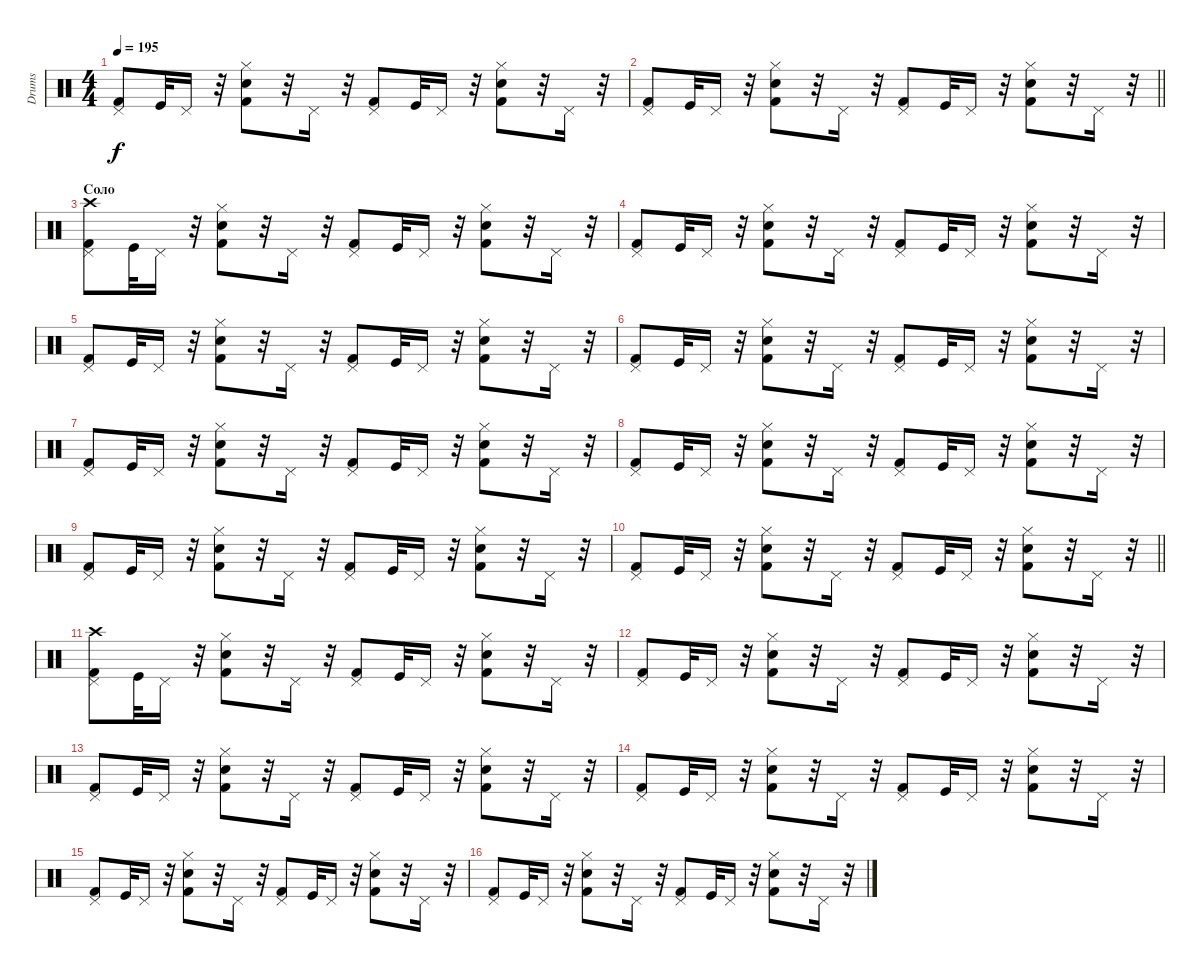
\track ("Drums" "Drums") {instrument percussion}
\staff {score}
\articulation defaults
\ts (4 4)
\tempo 195
\clef neutral
\ks c
("Kick (hit) 2" "Pedal Hi-Hat (hit)").8{dy f} "Kick (hit)".32 "Pedal Hi-Hat (hit)".16 r.32 ("Snare (hit) 2" "Kick (hit) 2" "Hi-Hat (closed)").8 r.32 "Pedal Hi-Hat (hit)".16 r.32 ("Kick (hit) 2" "Pedal Hi-Hat (hit)").8 "Kick (hit)".32 "Pedal Hi-Hat (hit)".16 r.32 ("Snare (hit) 2" "Kick (hit) 2" "Hi-Hat (closed)").8 r.32 "Pedal Hi-Hat (hit)".16 r.32 |
\barLineRight lightlight
("Kick (hit) 2" "Pedal Hi-Hat (hit)").8 "Kick (hit)".32 "Pedal Hi-Hat (hit)".16 r.32 ("Snare (hit) 2" "Kick (hit) 2" "Hi-Hat (closed)").8 r.32 "Pedal Hi-Hat (hit)".16 r.32 ("Kick (hit) 2" "Pedal Hi-Hat (hit)").8 "Kick (hit)".32 "Pedal Hi-Hat (hit)".16 r.32 ("Snare (hit) 2" "Kick (hit) 2" "Hi-Hat (closed)").8 r.32 "Pedal Hi-Hat (hit)".16 r.32 |
\section ("" "Соло")
("Crash high (hit)" "Kick (hit) 2" "Pedal Hi-Hat (hit)").8 "Kick (hit)".32 "Pedal Hi-Hat (hit)".16 r.32 ("Snare (hit) 2" "Kick (hit) 2" "Hi-Hat (closed)").8 r.32 "Pedal Hi-Hat (hit)".16 r.32 ("Kick (hit) 2" "Pedal Hi-Hat (hit)").8 "Kick (hit)".32 "Pedal Hi-Hat (hit)".16 r.32 ("Snare (hit) 2" "Kick (hit) 2" "Hi-Hat (closed)").8 r.32 "Pedal Hi-Hat (hit)".16 r.32 |
("Kick (hit) 2" "Pedal Hi-Hat (hit)").8 "Kick (hit)".32 "Pedal Hi-Hat (hit)".16 r.32 ("Snare (hit) 2" "Kick (hit) 2" "Hi-Hat (closed)").8 r.32 "Pedal Hi-Hat (hit)".16 r.32 ("Kick (hit) 2" "Pedal Hi-Hat (hit)").8 "Kick (hit)".32 "Pedal Hi-Hat (hit)".16 r.32 ("Snare (hit) 2" "Kick (hit) 2" "Hi-Hat (closed)").8 r.32 "Pedal Hi-Hat (hit)".16 r.32 |
("Kick (hit) 2" "Pedal Hi-Hat (hit)").8 "Kick (hit)".32 "Pedal Hi-Hat (hit)".16 r.32 ("Snare (hit) 2" "Kick (hit) 2" "Hi-Hat (closed)").8 r.32 "Pedal Hi-Hat (hit)".16 r.32 ("Kick (hit) 2" "Pedal Hi-Hat (hit)").8 "Kick (hit)".32 "Pedal Hi-Hat (hit)".16 r.32 ("Snare (hit) 2" "Kick (hit) 2" "Hi-Hat (closed)").8 r.32 "Pedal Hi-Hat (hit)".16 r.32 |
("Kick (hit) 2" "Pedal Hi-Hat (hit)").8 "Kick (hit)".32 "Pedal Hi-Hat (hit)".16 r.32 ("Snare (hit) 2" "Kick (hit) 2" "Hi-Hat (closed)").8 r.32 "Pedal Hi-Hat (hit)".16 r.32 ("Kick (hit) 2" "Pedal Hi-Hat (hit)").8 "Kick (hit)".32 "Pedal Hi-Hat (hit)".16 r.32 ("Snare (hit) 2" "Kick (hit) 2" "Hi-Hat (closed)").8 r.32 "Pedal Hi-Hat (hit)".16 r.32 |
("Kick (hit) 2" "Pedal Hi-Hat (hit)").8 "Kick (hit)".32 "Pedal Hi-Hat (hit)".16 r.32 ("Snare (hit) 2" "Kick (hit) 2" "Hi-Hat (closed)").8 r.32 "Pedal Hi-Hat (hit)".16 r.32 ("Kick (hit) 2" "Pedal Hi-Hat (hit)").8 "Kick (hit)".32 "Pedal Hi-Hat (hit)".16 r.32 ("Snare (hit) 2" "Kick (hit) 2" "Hi-Hat (closed)").8 r.32 "Pedal Hi-Hat (hit)".16 r.32 |
("Kick (hit) 2" "Pedal Hi-Hat (hit)").8 "Kick (hit)".32 "Pedal Hi-Hat (hit)".16 r.32 ("Snare (hit) 2" "Kick (hit) 2" "Hi-Hat (closed)").8 r.32 "Pedal Hi-Hat (hit)".16 r.32 ("Kick (hit) 2" "Pedal Hi-Hat (hit)").8 "Kick (hit)".32 "Pedal Hi-Hat (hit)".16 r.32 ("Snare (hit) 2" "Kick (hit) 2" "Hi-Hat (closed)").8 r.32 "Pedal Hi-Hat (hit)".16 r.32 |
("Kick (hit) 2" "Pedal Hi-Hat (hit)").8 "Kick (hit)".32 "Pedal Hi-Hat (hit)".16 r.32 ("Snare (hit) 2" "Kick (hit) 2" "Hi-Hat (closed)").8 r.32 "Pedal Hi-Hat (hit)".16 r.32 ("Kick (hit) 2" "Pedal Hi-Hat (hit)").8 "Kick (hit)".32 "Pedal Hi-Hat (hit)".16 r.32 ("Snare (hit) 2" "Kick (hit) 2" "Hi-Hat (closed)").8 r.32 "Pedal Hi-Hat (hit)".16 r.32 |
\barLineRight lightlight
("Kick (hit) 2" "Pedal Hi-Hat (hit)").8 "Kick (hit)".32 "Pedal Hi-Hat (hit)".16 r.32 ("Snare (hit) 2" "Kick (hit) 2" "Hi-Hat (closed)").8 r.32 "Pedal Hi-Hat (hit)".16 r.32 ("Kick (hit) 2" "Pedal Hi-Hat (hit)").8 "Kick (hit)".32 "Pedal Hi-Hat (hit)".16 r.32 ("Snare (hit) 2" "Kick (hit) 2" "Hi-Hat (closed)").8 r.32 "Pedal Hi-Hat (hit)".16 r.32 |
("Crash high (hit)" "Kick (hit) 2" "Pedal Hi-Hat (hit)").8 "Kick (hit)".32 "Pedal Hi-Hat (hit)".16 r.32 ("Snare (hit) 2" "Kick (hit) 2" "Hi-Hat (closed)").8 r.32 "Pedal Hi-Hat (hit)".16 r.32 ("Kick (hit) 2" "Pedal Hi-Hat (hit)").8 "Kick (hit)".32 "Pedal Hi-Hat (hit)".16 r.32 ("Snare (hit) 2" "Kick (hit) 2" "Hi-Hat (closed)").8 r.32 "Pedal Hi-Hat (hit)".16 r.32 |
("Kick (hit) 2" "Pedal Hi-Hat (hit)").8 "Kick (hit)".32 "Pedal Hi-Hat (hit)".16 r.32 ("Snare (hit) 2" "Kick (hit) 2" "Hi-Hat (closed)").8 r.32 "Pedal Hi-Hat (hit)".16 r.32 ("Kick (hit) 2" "Pedal Hi-Hat (hit)").8 "Kick (hit)".32 "Pedal Hi-Hat (hit)".16 r.32 ("Snare (hit) 2" "Kick (hit) 2" "Hi-Hat (closed)").8 r.32 "Pedal Hi-Hat (hit)".16 r.32 |
("Kick (hit) 2" "Pedal Hi-Hat (hit)").8 "Kick (hit)".32 "Pedal Hi-Hat (hit)".16 r.32 ("Snare (hit) 2" "Kick (hit) 2" "Hi-Hat (closed)").8 r.32 "Pedal Hi-Hat (hit)".16 r.32 ("Kick (hit) 2" "Pedal Hi-Hat (hit)").8 "Kick (hit)".32 "Pedal Hi-Hat (hit)".16 r.32 ("Snare (hit) 2" "Kick (hit) 2" "Hi-Hat (closed)").8 r.32 "Pedal Hi-Hat (hit)".16 r.32 |
("Kick (hit) 2" "Pedal Hi-Hat (hit)").8 "Kick (hit)".32 "Pedal Hi-Hat (hit)".16 r.32 ("Snare (hit) 2" "Kick (hit) 2" "Hi-Hat (closed)").8 r.32 "Pedal Hi-Hat (hit)".16 r.32 ("Kick (hit) 2" "Pedal Hi-Hat (hit)").8 "Kick (hit)".32 "Pedal Hi-Hat (hit)".16 r.32 ("Snare (hit) 2" "Kick (hit) 2" "Hi-Hat (closed)").8 r.32 "Pedal Hi-Hat (hit)".16 r.32 |
("Kick (hit) 2" "Pedal Hi-Hat (hit)").8 "Kick (hit)".32 "Pedal Hi-Hat (hit)".16 r.32 ("Snare (hit) 2" "Kick (hit) 2" "Hi-Hat (closed)").8 r.32 "Pedal Hi-Hat (hit)".16 r.32 ("Kick (hit) 2" "Pedal Hi-Hat (hit)").8 "Kick (hit)".32 "Pedal Hi-Hat (hit)".16 r.32 ("Snare (hit) 2" "Kick (hit) 2" "Hi-Hat (closed)").8 r.32 "Pedal Hi-Hat (hit)".16 r.32 |
("Kick (hit) 2" "Pedal Hi-Hat (hit)").8 "Kick (hit)".32 "Pedal Hi-Hat (hit)".16 r.32 ("Snare (hit) 2" "Kick (hit) 2" "Hi-Hat (closed)").8 r.32 "Pedal Hi-Hat (hit)".16 r.32 ("Kick (hit) 2" "Pedal Hi-Hat (hit)").8 "Kick (hit)".32 "Pedal Hi-Hat (hit)".16 r.32 ("Snare (hit) 2" "Kick (hit) 2" "Hi-Hat (closed)").8 r.32 "Pedal Hi-Hat (hit)".16 r.32
